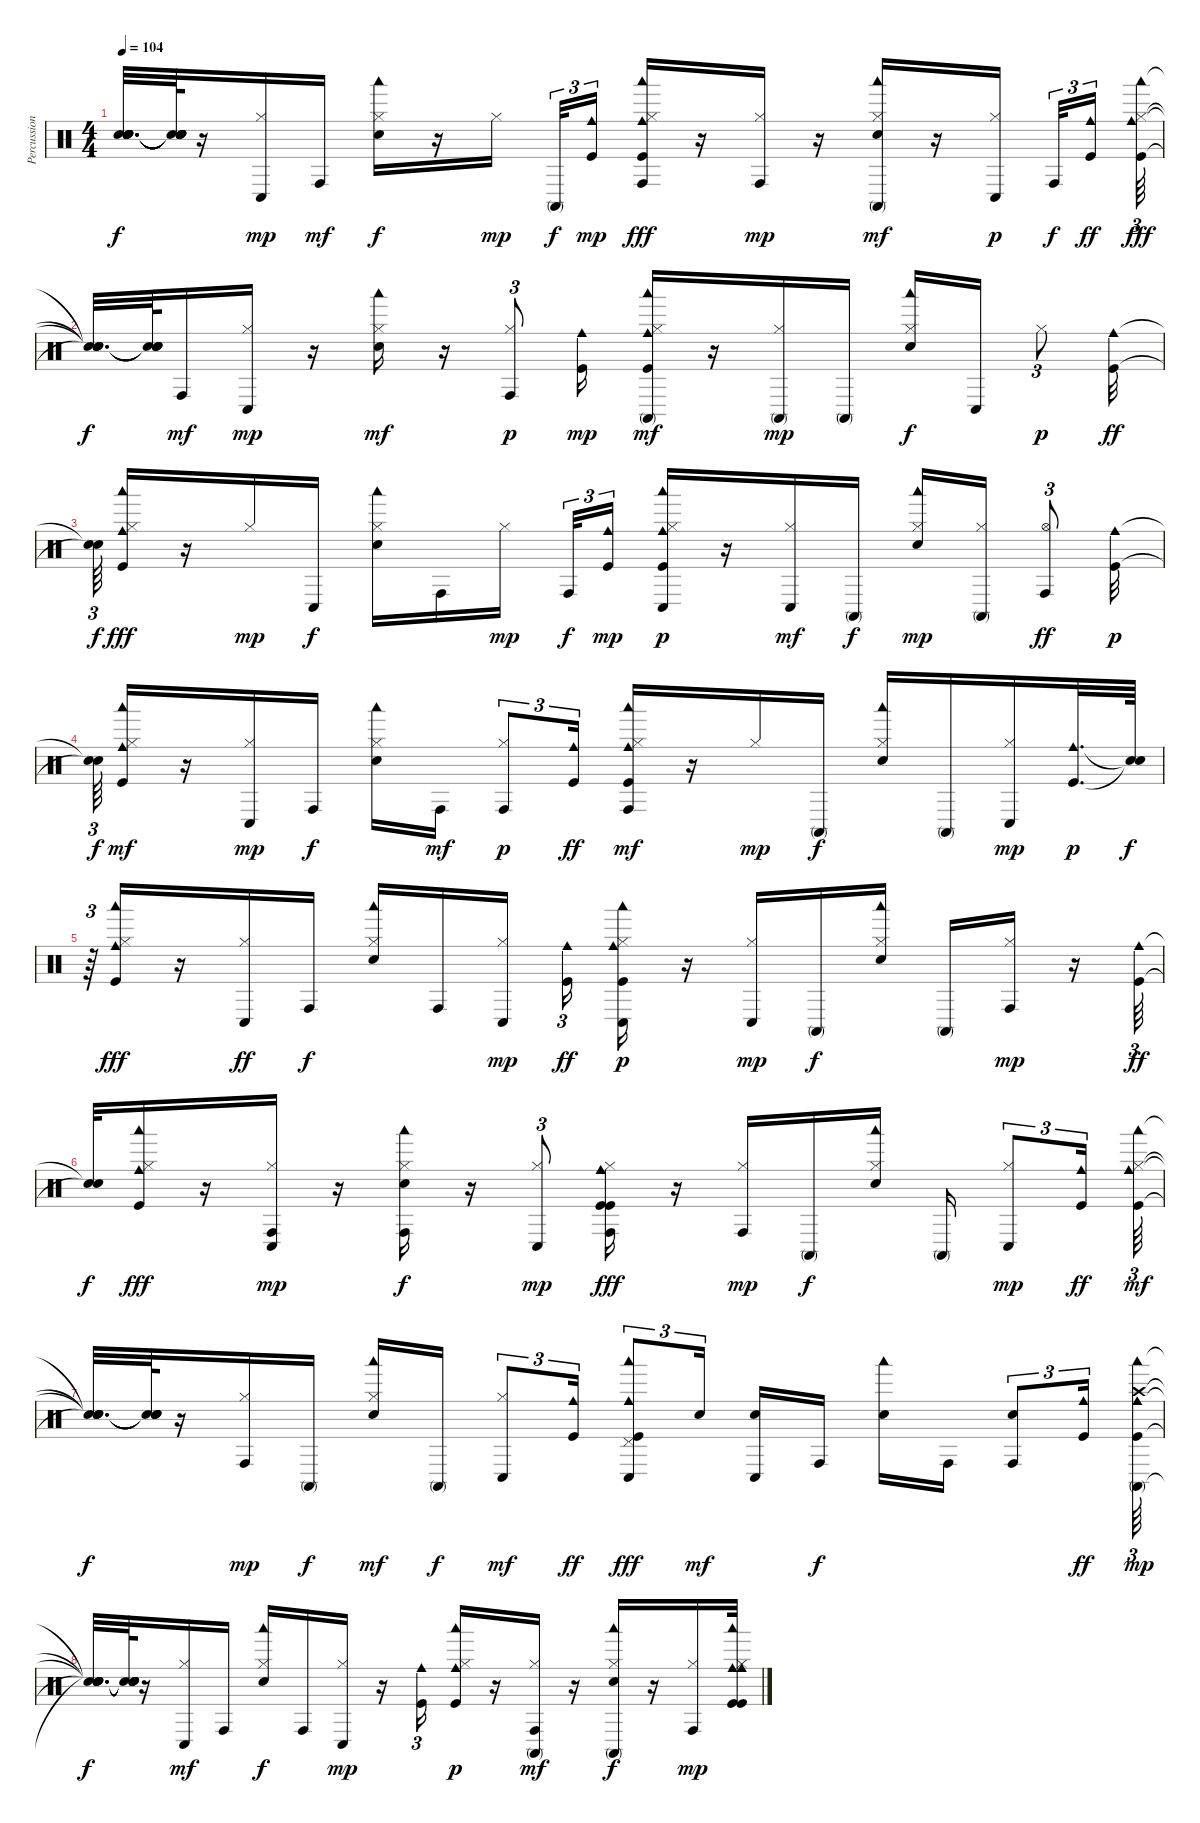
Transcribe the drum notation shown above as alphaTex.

\track ("Percussions (drums + hihats)" "Percussion") {instrument percussion}
\staff {score}
\articulation defaults
\ts (4 4)
\tempo 104
\clef neutral
\ks c
("Snare (hit)"{t} "Snare (hit)"{t} "Snare (hit)"{t} "Snare (hit)"{t} "Snare (hit)"{t} "Snare (hit)"{t}).32{d dy f} ("Snare (hit)"{t} "Snare (hit)"{t} "Snare (hit)"{t} "Snare (hit)"{t} "Snare (hit)"{t} "Snare (hit)"{t}).64 r.16 ("Hi-Hat (closed)" "Conga low (hit)").16{dy mp} "Conga high (hit)".16{dy mf} ("Electric Snare (hit)" "Hi-Hat (closed)" "Woodblock low (hit)").16{dy f} r.16 "Hi-Hat (closed)".16{dy mp} "Conga high (mute)".32{tu (3 2) dy f} ("Kick (hit)" "Cowbell medium (hit)").16{tu (3 2) dy mp} ("Cowbell medium (hit)" "Conga high (hit)" "Hi-Hat (closed)" "Kick (hit)" "Woodblock low (hit)").16{dy fff} r.16 ("Hi-Hat (closed)" "Conga high (hit)").16{dy mp} r.16 ("Electric Snare (hit)" "Conga high (mute)" "Hi-Hat (closed)" "Woodblock low (hit)").16{dy mf} r.16 ("Hi-Hat (closed)" "Conga low (hit)").16{dy p} "Conga high (hit)".32{tu (3 2) dy f} ("Cowbell medium (hit)" "Kick (hit)").16{tu (3 2) dy ff} ("Hi-Hat (closed)" "Cowbell medium (hit)" "Kick (hit)" "Woodblock low (hit)").64{tu (3 2) dy fff} |
("Snare (hit)"{t} "Snare (hit)"{t} "Snare (hit)"{t} "Snare (hit)"{t}).32{d dy f} ("Snare (hit)"{t} "Snare (hit)"{t} "Snare (hit)"{t} "Snare (hit)"{t}).64 "Conga high (hit)".16{dy mf} ("Hi-Hat (closed)" "Conga low (hit)").16{dy mp} r.16 ("Woodblock low (hit)" "Hi-Hat (closed)" "Electric Snare (hit)").16{dy mf} r.16 ("Conga high (hit)" "Hi-Hat (closed)").8{tu (3 2) dy p} ("Kick (hit)" "Cowbell medium (hit)").16{dy mp} ("Conga high (mute)" "Kick (hit)" "Cowbell medium (hit)" "Woodblock low (hit)" "Hi-Hat (closed)").16{dy mf} r.16 ("Conga high (mute)" "Hi-Hat (closed)").16{dy mp} "Conga high (mute)".16 ("Hi-Hat (closed)" "Woodblock low (hit)" "Electric Snare (hit)").16{dy f} "Conga low (hit)".16 "Hi-Hat (closed)".8{tu (3 2) dy p} ("Cowbell medium (hit)" "Kick (hit)").32{dy ff} |
("Snare (hit)"{t} "Snare (hit)"{t}).64{tu (3 2) dy f} ("Cowbell medium (hit)" "Woodblock low (hit)" "Hi-Hat (closed)" "Kick (hit)").16{dy fff} r.16 "Hi-Hat (closed)".16{dy mp} "Conga low (hit)".16{dy f} ("Woodblock low (hit)" "Electric Snare (hit)" "Hi-Hat (closed)").16 "Conga high (hit)".16 "Hi-Hat (closed)".16{dy mp} "Conga high (hit)".32{tu (3 2) dy f} ("Kick (hit)" "Cowbell medium (hit)").16{tu (3 2) dy mp} ("Hi-Hat (closed)" "Conga low (hit)" "Kick (hit)" "Cowbell medium (hit)" "Woodblock low (hit)").16{dy p} r.16 ("Conga low (hit)" "Hi-Hat (closed)").16{dy mf} "Conga high (mute)".16{dy f} ("Hi-Hat (closed)" "Electric Snare (hit)" "Woodblock low (hit)").16{dy mp} ("Hi-Hat (closed)" "Conga high (mute)").16 ("Hi-Hat (open)" "Conga high (hit)").8{tu (3 2) dy ff} ("Kick (hit)" "Cowbell medium (hit)").32{dy p} |
("Snare (hit)"{t} "Snare (hit)"{t}).64{tu (3 2) dy f} ("Kick (hit)" "Cowbell medium (hit)" "Hi-Hat (closed)" "Woodblock low (hit)").16{dy mf} r.16 ("Hi-Hat (closed)" "Conga low (hit)").16{dy mp} "Conga high (hit)".16{dy f} ("Electric Snare (hit)" "Hi-Hat (closed)" "Woodblock low (hit)").16 "Conga high (hit)".16{dy mf} ("Hi-Hat (closed)" "Conga high (hit)").8{tu (3 2) dy p} ("Cowbell medium (hit)" "Kick (hit)").16{tu (3 2) dy ff} ("Cowbell medium (hit)" "Woodblock low (hit)" "Kick (hit)" "Hi-Hat (closed)" "Conga high (hit)").16{dy mf} r.16 "Hi-Hat (closed)".16{dy mp} "Conga high (mute)".16{dy f} ("Hi-Hat (closed)" "Woodblock low (hit)" "Electric Snare (hit)").16 "Conga high (mute)".16 ("Conga low (hit)" "Hi-Hat (closed)").16{dy mp} ("Kick (hit)" "Cowbell medium (hit)").32{d dy p} ("Snare (hit)"{t} "Snare (hit)"{t}).64{dy f} |
r.64{tu (3 2)} ("Cowbell medium (hit)" "Woodblock low (hit)" "Hi-Hat (closed)" "Kick (hit)").16{dy fff} r.16 ("Hi-Hat (closed)" "Conga low (hit)").16{dy ff} "Conga high (hit)".16{dy f} ("Woodblock low (hit)" "Electric Snare (hit)" "Hi-Hat (closed)").16 "Conga high (hit)".16 ("Hi-Hat (closed)" "Conga low (hit)").16{dy mp} ("Cowbell medium (hit)" "Kick (hit)").16{tu (3 2) dy ff} ("Conga low (hit)" "Kick (hit)" "Woodblock low (hit)" "Hi-Hat (closed)" "Cowbell medium (hit)").16{dy p} r.16 ("Conga low (hit)" "Hi-Hat (closed)").16{dy mp} "Conga high (mute)".16{dy f} ("Hi-Hat (closed)" "Electric Snare (hit)" "Woodblock low (hit)").16 "Conga high (mute)".16 ("Hi-Hat (closed)" "Conga high (hit)").16{dy mp} r.16 ("Cowbell medium (hit)" "Kick (hit)").64{tu (3 2) dy ff} |
("Snare (hit)"{t} "Snare (hit)"{t}).32{dy f} ("Woodblock low (hit)" "Hi-Hat (closed)" "Cowbell medium (hit)" "Kick (hit)").16{dy fff} r.16 ("Hi-Hat (closed)" "Conga low (hit)" "Conga high (hit)").16{dy mp} r.16 ("Woodblock low (hit)" "Hi-Hat (closed)" "Electric Snare (hit)" "Conga high (hit)").16{dy f} r.16 ("Hi-Hat (closed)" "Conga low (hit)").8{tu (3 2) dy mp} ("Kick (hit)" "Cowbell medium (hit)" "Cowbell medium (hit)" "Hi-Hat (closed)" "Kick (hit)" "Conga high (hit)").16{dy fff} r.16 ("Hi-Hat (closed)" "Conga high (hit)").16{dy mp} "Conga high (mute)".16{dy f} ("Electric Snare (hit)" "Hi-Hat (closed)" "Woodblock low (hit)").16 "Conga high (mute)".16 ("Hi-Hat (closed)" "Conga low (hit)").8{tu (3 2) dy mp} ("Cowbell medium (hit)" "Kick (hit)").16{tu (3 2) dy ff} ("Woodblock low (hit)" "Cowbell medium (hit)" "Kick (hit)" "Hi-Hat (closed)").64{tu (3 2) dy mf} |
("Snare (hit)"{t} "Snare (hit)"{t} "Snare (hit)"{t} "Snare (hit)"{t}).32{d dy f} ("Snare (hit)"{t} "Snare (hit)"{t} "Snare (hit)"{t} "Snare (hit)"{t}).64 r.16 ("Conga high (hit)" "Hi-Hat (closed)").16{dy mp} "Conga high (mute)".16{dy f} ("Woodblock low (hit)" "Hi-Hat (closed)" "Electric Snare (hit)").16{dy mf} "Conga high (mute)".16{dy f} ("Hi-Hat (closed)" "Conga low (hit)").8{tu (3 2) dy mf} ("Cowbell medium (hit)" "Kick (hit)").16{tu (3 2) dy ff} ("Pedal Hi-Hat (hit)" "Woodblock low (hit)" "Cowbell medium (hit)" "Conga low (hit)" "Kick (hit)").8{tu (3 2) dy fff} "Electric Snare (hit)".16{tu (3 2) dy mf} ("Conga low (hit)" "Electric Snare (hit)").16 "Conga high (hit)".16{dy f} ("Electric Snare (hit)" "Woodblock low (hit)").16 "Conga high (hit)".16 ("Electric Snare (hit)" "Conga high (hit)").8{tu (3 2)} ("Cowbell medium (hit)" "Kick (hit)").16{tu (3 2) dy ff} ("Crash high (hit)" "Conga high (mute)" "Kick (hit)" "Cowbell medium (hit)" "Woodblock low (hit)").64{tu (3 2) dy mp} |
("Snare (hit)"{t} "Snare (hit)"{t} "Snare (hit)"{t} "Snare (hit)"{t} "Snare (hit)"{t}).32{d dy f} ("Snare (hit)"{t} "Snare (hit)"{t} "Snare (hit)"{t} "Snare (hit)"{t} "Snare (hit)"{t}).64 r.16 ("Hi-Hat (closed)" "Conga low (hit)").16{dy mf} "Conga high (hit)".16 ("Electric Snare (hit)" "Hi-Hat (closed)" "Woodblock low (hit)").16{dy f} "Conga high (hit)".16 ("Hi-Hat (closed)" "Conga low (hit)").16{dy mp} r.16 ("Kick (hit)" "Cowbell medium (hit)").16{tu (3 2)} ("Hi-Hat (closed)" "Woodblock low (hit)" "Kick (hit)" "Cowbell medium (hit)").16{dy p} r.16 ("Hi-Hat (closed)" "Conga high (hit)" "Conga high (mute)").16{dy mf} r.16 ("Woodblock low (hit)" "Hi-Hat (closed)" "Electric Snare (hit)" "Conga high (mute)").16{dy f} r.16 ("Hi-Hat (closed)" "Conga high (hit)").16{dy mp} ("Kick (hit)" "Cowbell medium (hit)" "Kick (hit)" "Hi-Hat (closed)" "Woodblock low (hit)" "Cowbell medium (hit)").32
